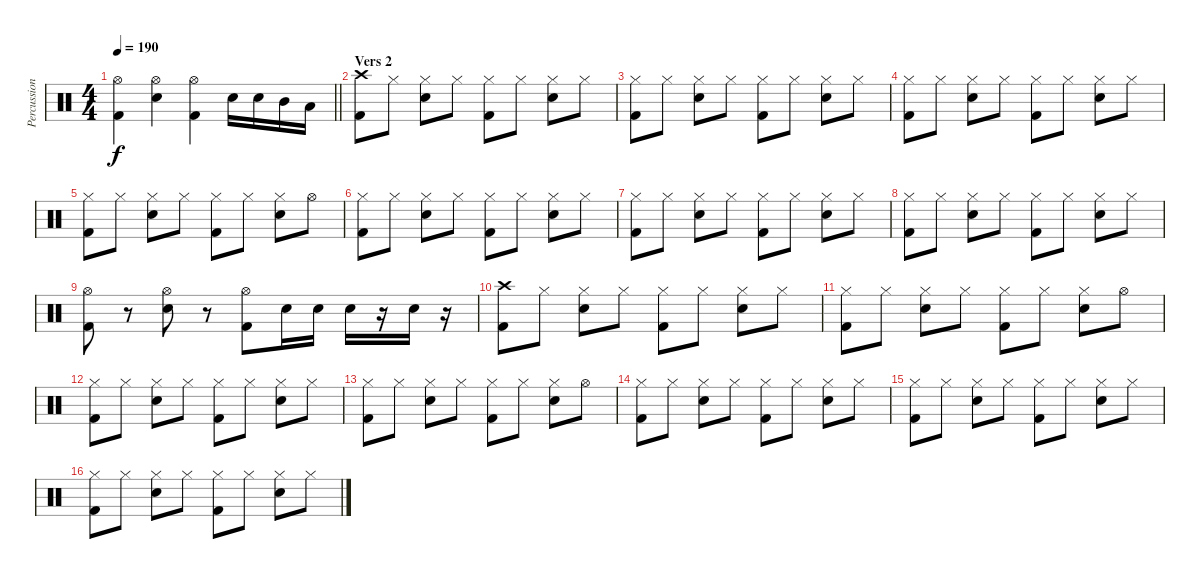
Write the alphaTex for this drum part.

\track ("Percussion" "Percussion") {instrument percussion}
\staff {score}
\articulation defaults
\ts (4 4)
\tempo 190
\clef neutral
\barLineRight lightlight
\ks c
("Kick (hit) 2" "Hi-Hat (open)").4{dy f} ("Hi-Hat (open)" "Snare (hit) 2").4 ("Kick (hit) 2" "Hi-Hat (open)").4 "Snare (hit) 2".16 "Snare (hit) 2".16 "Mid Tom (hit)".16 "Low Tom (hit)".16 |
\section ("" "Vers 2")
("Kick (hit) 2" "Crash high (hit)").8 "Hi-Hat (closed)".8 ("Hi-Hat (closed)" "Snare (hit) 2").8 "Hi-Hat (closed)".8 ("Kick (hit) 2" "Hi-Hat (closed)").8 "Hi-Hat (closed)".8 ("Hi-Hat (closed)" "Snare (hit) 2").8 "Hi-Hat (closed)".8 |
("Kick (hit) 2" "Hi-Hat (closed)").8 "Hi-Hat (closed)".8 ("Hi-Hat (closed)" "Snare (hit) 2").8 "Hi-Hat (closed)".8 ("Kick (hit) 2" "Hi-Hat (closed)").8 "Hi-Hat (closed)".8 ("Hi-Hat (closed)" "Snare (hit) 2").8 "Hi-Hat (closed)".8 |
("Kick (hit) 2" "Hi-Hat (closed)").8 "Hi-Hat (closed)".8 ("Hi-Hat (closed)" "Snare (hit) 2").8 "Hi-Hat (closed)".8 ("Kick (hit) 2" "Hi-Hat (closed)").8 "Hi-Hat (closed)".8 ("Hi-Hat (closed)" "Snare (hit) 2").8 "Hi-Hat (closed)".8 |
("Kick (hit) 2" "Hi-Hat (closed)").8 "Hi-Hat (closed)".8 ("Hi-Hat (closed)" "Snare (hit) 2").8 "Hi-Hat (closed)".8 ("Kick (hit) 2" "Hi-Hat (closed)").8 "Hi-Hat (closed)".8 ("Hi-Hat (closed)" "Snare (hit) 2").8 "Hi-Hat (open)".8 |
("Kick (hit) 2" "Hi-Hat (closed)").8 "Hi-Hat (closed)".8 ("Hi-Hat (closed)" "Snare (hit) 2").8 "Hi-Hat (closed)".8 ("Kick (hit) 2" "Hi-Hat (closed)").8 "Hi-Hat (closed)".8 ("Hi-Hat (closed)" "Snare (hit) 2").8 "Hi-Hat (closed)".8 |
("Kick (hit) 2" "Hi-Hat (closed)").8 "Hi-Hat (closed)".8 ("Hi-Hat (closed)" "Snare (hit) 2").8 "Hi-Hat (closed)".8 ("Kick (hit) 2" "Hi-Hat (closed)").8 "Hi-Hat (closed)".8 ("Hi-Hat (closed)" "Snare (hit) 2").8 "Hi-Hat (closed)".8 |
("Kick (hit) 2" "Hi-Hat (closed)").8 "Hi-Hat (closed)".8 ("Hi-Hat (closed)" "Snare (hit) 2").8 "Hi-Hat (closed)".8 ("Kick (hit) 2" "Hi-Hat (closed)").8 "Hi-Hat (closed)".8 ("Hi-Hat (closed)" "Snare (hit) 2").8 "Hi-Hat (closed)".8 |
("Kick (hit) 2" "Hi-Hat (open)").8 r.8 ("Hi-Hat (open)" "Snare (hit) 2").8 r.8 ("Kick (hit) 2" "Hi-Hat (open)").8 "Snare (hit) 2".16 "Snare (hit) 2".16 "Snare (hit) 2".16 r.16 "Snare (hit) 2".16 r.16 |
("Kick (hit) 2" "Crash high (hit)").8 "Hi-Hat (closed)".8 ("Hi-Hat (closed)" "Snare (hit) 2").8 "Hi-Hat (closed)".8 ("Kick (hit) 2" "Hi-Hat (closed)").8 "Hi-Hat (closed)".8 ("Hi-Hat (closed)" "Snare (hit) 2").8 "Hi-Hat (closed)".8 |
("Kick (hit) 2" "Hi-Hat (closed)").8 "Hi-Hat (closed)".8 ("Hi-Hat (closed)" "Snare (hit) 2").8 "Hi-Hat (closed)".8 ("Kick (hit) 2" "Hi-Hat (closed)").8 "Hi-Hat (closed)".8 ("Hi-Hat (closed)" "Snare (hit) 2").8 "Hi-Hat (open)".8 |
("Kick (hit) 2" "Hi-Hat (closed)").8 "Hi-Hat (closed)".8 ("Hi-Hat (closed)" "Snare (hit) 2").8 "Hi-Hat (closed)".8 ("Kick (hit) 2" "Hi-Hat (closed)").8 "Hi-Hat (closed)".8 ("Hi-Hat (closed)" "Snare (hit) 2").8 "Hi-Hat (closed)".8 |
("Kick (hit) 2" "Hi-Hat (closed)").8 "Hi-Hat (closed)".8 ("Hi-Hat (closed)" "Snare (hit) 2").8 "Hi-Hat (closed)".8 ("Kick (hit) 2" "Hi-Hat (closed)").8 "Hi-Hat (closed)".8 ("Hi-Hat (closed)" "Snare (hit) 2").8 "Hi-Hat (open)".8 |
("Kick (hit) 2" "Hi-Hat (closed)").8 "Hi-Hat (closed)".8 ("Hi-Hat (closed)" "Snare (hit) 2").8 "Hi-Hat (closed)".8 ("Kick (hit) 2" "Hi-Hat (closed)").8 "Hi-Hat (closed)".8 ("Hi-Hat (closed)" "Snare (hit) 2").8 "Hi-Hat (closed)".8 |
("Kick (hit) 2" "Hi-Hat (closed)").8 "Hi-Hat (closed)".8 ("Hi-Hat (closed)" "Snare (hit) 2").8 "Hi-Hat (closed)".8 ("Kick (hit) 2" "Hi-Hat (closed)").8 "Hi-Hat (closed)".8 ("Hi-Hat (closed)" "Snare (hit) 2").8 "Hi-Hat (closed)".8 |
("Kick (hit) 2" "Hi-Hat (closed)").8 "Hi-Hat (closed)".8 ("Hi-Hat (closed)" "Snare (hit) 2").8 "Hi-Hat (closed)".8 ("Kick (hit) 2" "Hi-Hat (closed)").8 "Hi-Hat (closed)".8 ("Hi-Hat (closed)" "Snare (hit) 2").8 "Hi-Hat (closed)".8
